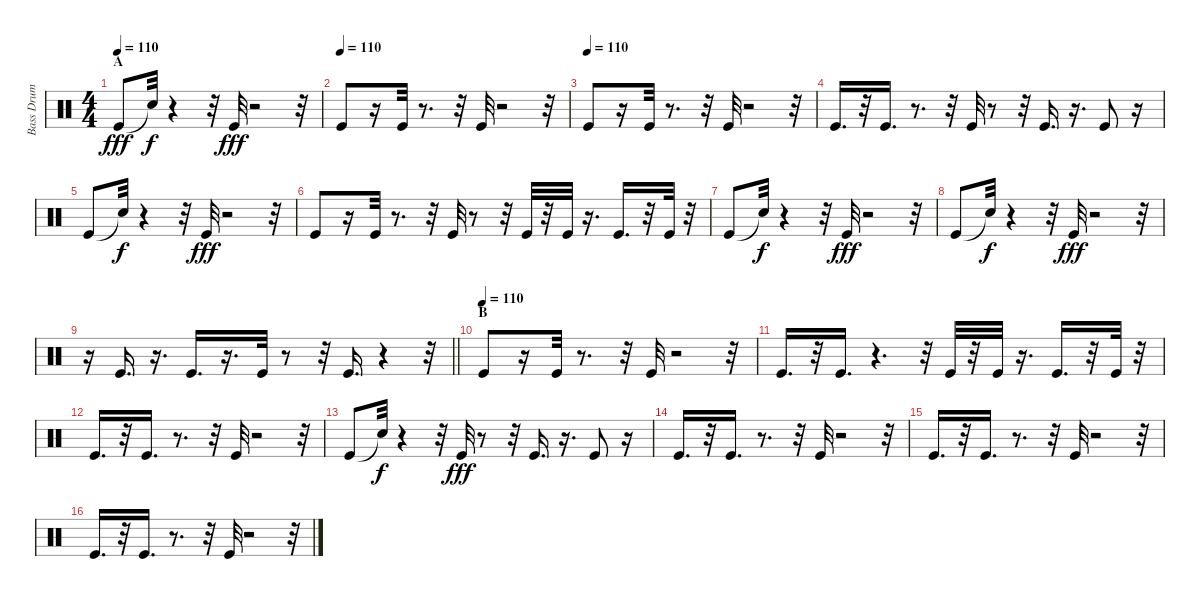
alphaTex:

\track ("Bass Drum" "Bass Drum") {instrument percussion}
\staff {score}
\articulation defaults
\ts (4 4)
\section ("" "A")
\tempo 110
\clef neutral
\ks c "Kick (hit)".8{dy fff} "Snare (hit)"{t}.32{dy f}
r.4 r.32 "Kick (hit)".32{dy fff} r.2 r.32 |
\tempo (110)
"Kick (hit)".8 r.16 "Kick (hit)".32 r.8{d} r.32 "Kick (hit)".32 r.2 r.32 |
\tempo (110)
"Kick (hit)".8 r.16 "Kick (hit)".32 r.8{d} r.32 "Kick (hit)".32 r.2 r.32 |
"Kick (hit)".16{d} r.32 "Kick (hit)".16{d} r.8{d} r.32 "Kick (hit)".32 r.8 r.32 "Kick (hit)".16{d} r.16{d} "Kick (hit)".8 r.16 |
"Kick (hit)".8 "Snare (hit)"{t}.32{dy f} r.4 r.32 "Kick (hit)".32{dy fff} r.2 r.32 |
"Kick (hit)".8 r.16 "Kick (hit)".32 r.8{d} r.32 "Kick (hit)".32 r.8 r.32 "Kick (hit)".32 r.32 "Kick (hit)".32 r.16{d} "Kick (hit)".16{d} r.32 "Kick (hit)".32 r.32 |
"Kick (hit)".8 "Snare (hit)"{t}.32{dy f} r.4 r.32 "Kick (hit)".32{dy fff} r.2 r.32 |
"Kick (hit)".8 "Snare (hit)"{t}.32{dy f} r.4 r.32 "Kick (hit)".32{dy fff} r.2 r.32 |
\barLineRight lightlight
r.16 "Kick (hit)".16{d} r.16{d} "Kick (hit)".16{d} r.16{d} "Kick (hit)".32 r.8 r.32 "Kick (hit)".16{d} r.4 r.32 |
\section ("" "B")
\tempo (110)
"Kick (hit)".8 r.16 "Kick (hit)".32 r.8{d} r.32 "Kick (hit)".32 r.2 r.32 |
"Kick (hit)".16{d} r.32 "Kick (hit)".16{d} r.4{d} r.32 "Kick (hit)".32 r.32 "Kick (hit)".32 r.16{d} "Kick (hit)".16{d} r.32 "Kick (hit)".32 r.32 |
"Kick (hit)".16{d} r.32 "Kick (hit)".16{d} r.8{d} r.32 "Kick (hit)".32 r.2 r.32 |
"Kick (hit)".8 "Snare (hit)"{t}.32{dy f} r.4 r.32 "Kick (hit)".32{dy fff} r.8 r.32 "Kick (hit)".16{d} r.16{d} "Kick (hit)".8 r.16 |
"Kick (hit)".16{d} r.32 "Kick (hit)".16{d} r.8{d} r.32 "Kick (hit)".32 r.2 r.32 |
"Kick (hit)".16{d} r.32 "Kick (hit)".16{d} r.8{d} r.32 "Kick (hit)".32 r.2 r.32 |
"Kick (hit)".16{d} r.32 "Kick (hit)".16{d} r.8{d} r.32 "Kick (hit)".32 r.2 r.32
